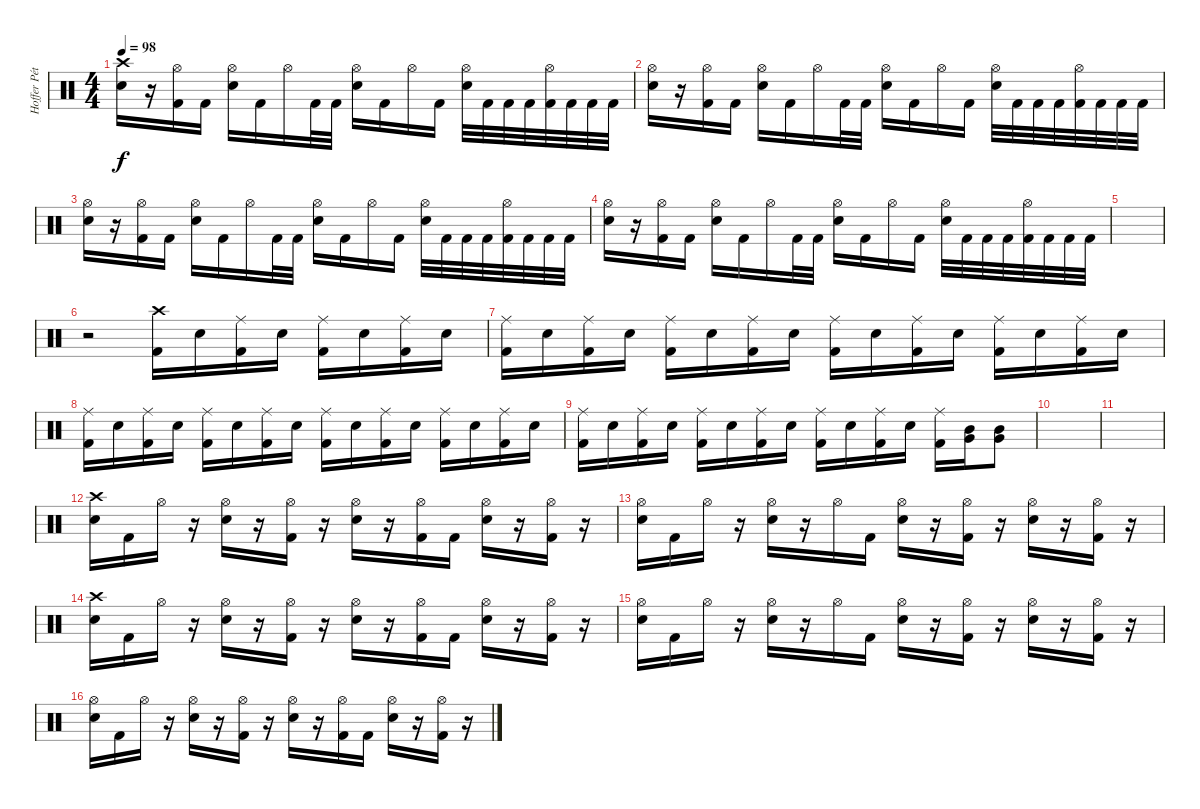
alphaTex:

\track ("Hoffer Péter" "Hoffer Pét") {instrument percussion}
\staff {score}
\articulation defaults
\ts (4 4)
\tempo 98
\clef neutral
\ks c
("Crash high (hit)" "Electric Snare (hit)").16{dy f} r.16 ("Hi-Hat (open)" "Kick (hit) 2").16 "Kick (hit) 2".16 ("Hi-Hat (open)" "Electric Snare (hit)").16 "Kick (hit) 2".16 "Hi-Hat (open)".16 "Kick (hit) 2".32 "Kick (hit) 2".32 ("Hi-Hat (open)" "Electric Snare (hit)").16 "Kick (hit) 2".16 "Hi-Hat (open)".16 "Kick (hit) 2".16 ("Hi-Hat (open)" "Electric Snare (hit)").32 "Kick (hit) 2".32 "Kick (hit) 2".32 "Kick (hit) 2".32 ("Hi-Hat (open)" "Kick (hit) 2").32 "Kick (hit) 2".32 "Kick (hit) 2".32 "Kick (hit) 2".32 |
("Hi-Hat (open)" "Electric Snare (hit)").16 r.16 ("Hi-Hat (open)" "Kick (hit) 2").16 "Kick (hit) 2".16 ("Hi-Hat (open)" "Electric Snare (hit)").16 "Kick (hit) 2".16 "Hi-Hat (open)".16 "Kick (hit) 2".32 "Kick (hit) 2".32 ("Hi-Hat (open)" "Electric Snare (hit)").16 "Kick (hit) 2".16 "Hi-Hat (open)".16 "Kick (hit) 2".16 ("Hi-Hat (open)" "Electric Snare (hit)").32 "Kick (hit) 2".32 "Kick (hit) 2".32 "Kick (hit) 2".32 ("Hi-Hat (open)" "Kick (hit) 2").32 "Kick (hit) 2".32 "Kick (hit) 2".32 "Kick (hit) 2".32 |
("Hi-Hat (open)" "Electric Snare (hit)").16 r.16 ("Hi-Hat (open)" "Kick (hit) 2").16 "Kick (hit) 2".16 ("Hi-Hat (open)" "Electric Snare (hit)").16 "Kick (hit) 2".16 "Hi-Hat (open)".16 "Kick (hit) 2".32 "Kick (hit) 2".32 ("Hi-Hat (open)" "Electric Snare (hit)").16 "Kick (hit) 2".16 "Hi-Hat (open)".16 "Kick (hit) 2".16 ("Hi-Hat (open)" "Electric Snare (hit)").32 "Kick (hit) 2".32 "Kick (hit) 2".32 "Kick (hit) 2".32 ("Hi-Hat (open)" "Kick (hit) 2").32 "Kick (hit) 2".32 "Kick (hit) 2".32 "Kick (hit) 2".32 |
("Hi-Hat (open)" "Electric Snare (hit)").16 r.16 ("Hi-Hat (open)" "Kick (hit) 2").16 "Kick (hit) 2".16 ("Hi-Hat (open)" "Electric Snare (hit)").16 "Kick (hit) 2".16 "Hi-Hat (open)".16 "Kick (hit) 2".32 "Kick (hit) 2".32 ("Hi-Hat (open)" "Electric Snare (hit)").16 "Kick (hit) 2".16 "Hi-Hat (open)".16 "Kick (hit) 2".16 ("Hi-Hat (open)" "Electric Snare (hit)").32 "Kick (hit) 2".32 "Kick (hit) 2".32 "Kick (hit) 2".32 ("Hi-Hat (open)" "Kick (hit) 2").32 "Kick (hit) 2".32 "Kick (hit) 2".32 "Kick (hit) 2".32 |
|
r.2 ("Crash high (hit)" "Kick (hit) 2").16 "Electric Snare (hit)".16 ("Ride (middle)" "Kick (hit) 2").16 "Electric Snare (hit)".16 ("Ride (middle)" "Kick (hit) 2").16 "Electric Snare (hit)".16 ("Ride (middle)" "Kick (hit) 2").16 "Electric Snare (hit)".16 |
("Ride (middle)" "Kick (hit) 2").16 "Electric Snare (hit)".16 ("Ride (middle)" "Kick (hit) 2").16 "Electric Snare (hit)".16 ("Ride (middle)" "Kick (hit) 2").16 "Electric Snare (hit)".16 ("Ride (middle)" "Kick (hit) 2").16 "Electric Snare (hit)".16 ("Ride (middle)" "Kick (hit) 2").16 "Electric Snare (hit)".16 ("Ride (middle)" "Kick (hit) 2").16 "Electric Snare (hit)".16 ("Ride (middle)" "Kick (hit) 2").16 "Electric Snare (hit)".16 ("Ride (middle)" "Kick (hit) 2").16 "Electric Snare (hit)".16 |
("Ride (middle)" "Kick (hit) 2").16 "Electric Snare (hit)".16 ("Ride (middle)" "Kick (hit) 2").16 "Electric Snare (hit)".16 ("Ride (middle)" "Kick (hit) 2").16 "Electric Snare (hit)".16 ("Ride (middle)" "Kick (hit) 2").16 "Electric Snare (hit)".16 ("Ride (middle)" "Kick (hit) 2").16 "Electric Snare (hit)".16 ("Ride (middle)" "Kick (hit) 2").16 "Electric Snare (hit)".16 ("Ride (middle)" "Kick (hit) 2").16 "Electric Snare (hit)".16 ("Ride (middle)" "Kick (hit) 2").16 "Electric Snare (hit)".16 |
("Ride (middle)" "Kick (hit) 2").16 "Electric Snare (hit)".16 ("Ride (middle)" "Kick (hit) 2").16 "Electric Snare (hit)".16 ("Ride (middle)" "Kick (hit) 2").16 "Electric Snare (hit)".16 ("Ride (middle)" "Kick (hit) 2").16 "Electric Snare (hit)".16 ("Ride (middle)" "Kick (hit) 2").16 "Electric Snare (hit)".16 ("Ride (middle)" "Kick (hit) 2").16 "Electric Snare (hit)".16 ("Ride (middle)" "Kick (hit) 2").16 ("Very Low Tom (hit)" "Mid Tom (hit)").16 ("Very Low Tom (hit)" "Mid Tom (hit)").8 |
|
|
("Crash high (hit)" "Electric Snare (hit)").16 "Kick (hit) 2".16 "Hi-Hat (open)".16 r.16 ("Hi-Hat (open)" "Electric Snare (hit)").16 r.16 ("Hi-Hat (open)" "Kick (hit) 2").16 r.16 ("Hi-Hat (open)" "Electric Snare (hit)").16 r.16 ("Hi-Hat (open)" "Kick (hit) 2").16 "Kick (hit) 2".16 ("Hi-Hat (open)" "Electric Snare (hit)").16 r.16 ("Hi-Hat (open)" "Kick (hit) 2").16 r.16 |
("Hi-Hat (open)" "Electric Snare (hit)").16 "Kick (hit) 2".16 "Hi-Hat (open)".16 r.16 ("Hi-Hat (open)" "Electric Snare (hit)").16 r.16 "Hi-Hat (open)".16 "Kick (hit) 2".16 ("Hi-Hat (open)" "Electric Snare (hit)").16 r.16 ("Hi-Hat (open)" "Kick (hit) 2").16 r.16 ("Hi-Hat (open)" "Electric Snare (hit)").16 r.16 ("Hi-Hat (open)" "Kick (hit) 2").16 r.16 |
("Crash high (hit)" "Electric Snare (hit)").16 "Kick (hit) 2".16 "Hi-Hat (open)".16 r.16 ("Hi-Hat (open)" "Electric Snare (hit)").16 r.16 ("Hi-Hat (open)" "Kick (hit) 2").16 r.16 ("Hi-Hat (open)" "Electric Snare (hit)").16 r.16 ("Hi-Hat (open)" "Kick (hit) 2").16 "Kick (hit) 2".16 ("Hi-Hat (open)" "Electric Snare (hit)").16 r.16 ("Hi-Hat (open)" "Kick (hit) 2").16 r.16 |
("Hi-Hat (open)" "Electric Snare (hit)").16 "Kick (hit) 2".16 "Hi-Hat (open)".16 r.16 ("Hi-Hat (open)" "Electric Snare (hit)").16 r.16 "Hi-Hat (open)".16 "Kick (hit) 2".16 ("Hi-Hat (open)" "Electric Snare (hit)").16 r.16 ("Hi-Hat (open)" "Kick (hit) 2").16 r.16 ("Hi-Hat (open)" "Electric Snare (hit)").16 r.16 ("Hi-Hat (open)" "Kick (hit) 2").16 r.16 |
("Hi-Hat (open)" "Electric Snare (hit)").16 "Kick (hit) 2".16 "Hi-Hat (open)".16 r.16 ("Hi-Hat (open)" "Electric Snare (hit)").16 r.16 ("Hi-Hat (open)" "Kick (hit) 2").16 r.16 ("Hi-Hat (open)" "Electric Snare (hit)").16 r.16 ("Hi-Hat (open)" "Kick (hit) 2").16 "Kick (hit) 2".16 ("Hi-Hat (open)" "Electric Snare (hit)").16 r.16 ("Hi-Hat (open)" "Kick (hit) 2").16 r.16
